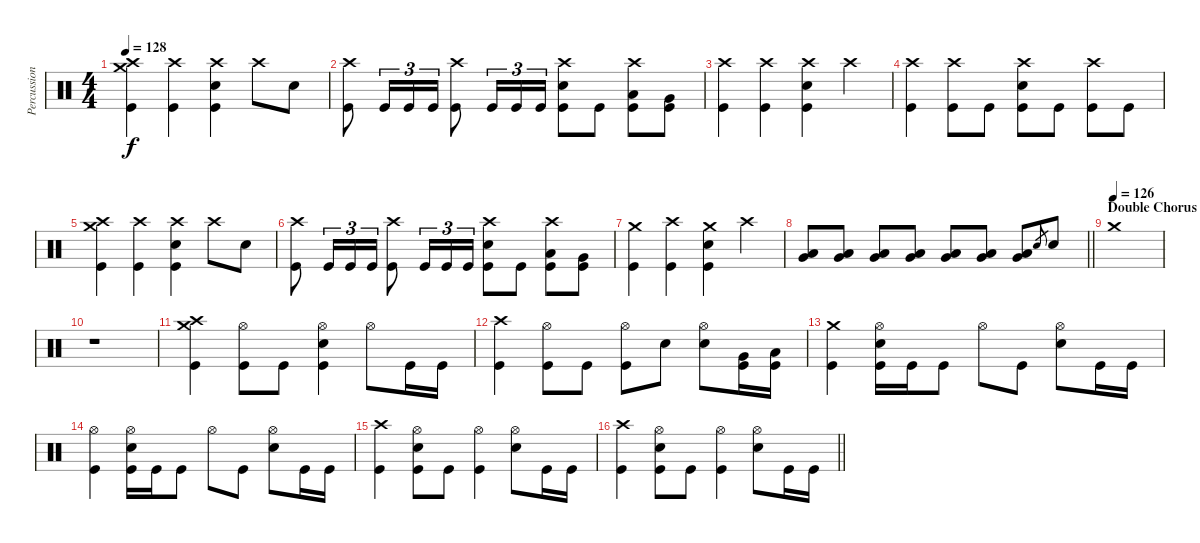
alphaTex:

\track ("Percussion" "Percussion") {instrument percussion}
\staff {score}
\articulation defaults
\ts (4 4)
\tempo 128
\clef neutral
\ks c
("Crash high (hit)" "Crash medium (hit)" "Kick (hit)").4{dy f} ("Crash high (hit)" "Kick (hit)").4 ("Crash high (hit)" "Electric Snare (hit)" "Kick (hit)").4 "Crash high (hit)".8 "Electric Snare (hit)".8 |
("Crash high (hit)" "Kick (hit)").8 "Kick (hit)".16{tu (3 2)} "Kick (hit)".16{tu (3 2)} "Kick (hit)".16{tu (3 2)} ("Crash high (hit)" "Kick (hit)").8 "Kick (hit)".16{tu (3 2)} "Kick (hit)".16{tu (3 2)} "Kick (hit)".16{tu (3 2)} ("Crash high (hit)" "Electric Snare (hit)" "Kick (hit)").8 "Kick (hit)".8 ("Crash high (hit)" "Low Floor Tom (hit)" "Kick (hit)").8 ("Very Low Tom (hit)" "Kick (hit)").8 |
("Crash high (hit)" "Kick (hit)").4 ("Crash high (hit)" "Kick (hit)").4 ("Crash high (hit)" "Electric Snare (hit)" "Kick (hit)").4 "Crash high (hit)".4 |
("Crash high (hit)" "Kick (hit)").4 ("Crash high (hit)" "Kick (hit)").8 "Kick (hit)".8 ("Crash high (hit)" "Electric Snare (hit)" "Kick (hit)").8 "Kick (hit)".8 ("Crash high (hit)" "Kick (hit)").8 "Kick (hit)".8 |
("Crash high (hit)" "Crash medium (hit)" "Kick (hit)").4 ("Crash high (hit)" "Kick (hit)").4 ("Crash high (hit)" "Electric Snare (hit)" "Kick (hit)").4 "Crash high (hit)".8 "Electric Snare (hit)".8 |
("Crash high (hit)" "Kick (hit)").8 "Kick (hit)".16{tu (3 2)} "Kick (hit)".16{tu (3 2)} "Kick (hit)".16{tu (3 2)} ("Crash high (hit)" "Kick (hit)").8 "Kick (hit)".16{tu (3 2)} "Kick (hit)".16{tu (3 2)} "Kick (hit)".16{tu (3 2)} ("Crash high (hit)" "Electric Snare (hit)" "Kick (hit)").8 "Kick (hit)".8 ("Crash high (hit)" "Low Floor Tom (hit)" "Kick (hit)").8 ("Very Low Tom (hit)" "Kick (hit)").8 |
("Crash medium (hit)" "Kick (hit)").4 ("Crash high (hit)" "Kick (hit)").4 ("Crash medium (hit)" "Electric Snare (hit)" "Kick (hit)").4 "Crash high (hit)".4 |
\barLineRight lightlight
("Very Low Tom (hit)" "Low Floor Tom (hit)").8 ("Very Low Tom (hit)" "Low Floor Tom (hit)").8 ("Very Low Tom (hit)" "Low Floor Tom (hit)").8 ("Very Low Tom (hit)" "Low Floor Tom (hit)").8 ("Very Low Tom (hit)" "Low Floor Tom (hit)").8 ("Very Low Tom (hit)" "Low Floor Tom (hit)").8 ("Very Low Tom (hit)" "Low Floor Tom (hit)").8 "Electric Snare (hit)".8{gr} "Electric Snare (hit)".8 |
\section ("" "Double Chorus")
\tempo (126)
"Crash medium (hit)".1 |
r.1 |
("Crash high (hit)" "Crash medium (hit)" "Kick (hit)").4 ("Hi-Hat (open)" "Kick (hit)").8 "Kick (hit)".8 ("Hi-Hat (open)" "Electric Snare (hit)" "Kick (hit)").4 "Hi-Hat (open)".8 "Kick (hit)".16 "Kick (hit)".16 |
("Crash high (hit)" "Kick (hit)").4 ("Hi-Hat (open)" "Kick (hit)").8 "Kick (hit)".8 ("Hi-Hat (open)" "Kick (hit)").8 "Electric Snare (hit)".8 ("Hi-Hat (open)" "Electric Snare (hit)").8 ("Very Low Tom (hit)" "Kick (hit)").16 ("Low Tom (hit)" "Kick (hit)").16 |
("Crash medium (hit)" "Kick (hit)").4 ("Hi-Hat (open)" "Electric Snare (hit)" "Kick (hit)").16 "Kick (hit)".16 "Kick (hit)".8 "Hi-Hat (open)".8 "Kick (hit)".8 ("Hi-Hat (open)" "Electric Snare (hit)").8 "Kick (hit)".16 "Kick (hit)".16 |
("Hi-Hat (open)" "Kick (hit)").4 ("Hi-Hat (open)" "Electric Snare (hit)" "Kick (hit)").16 "Kick (hit)".16 "Kick (hit)".8 "Hi-Hat (open)".8 "Kick (hit)".8 ("Hi-Hat (open)" "Electric Snare (hit)").8 "Kick (hit)".16 "Kick (hit)".16 |
("Crash high (hit)" "Kick (hit)").4 ("Hi-Hat (open)" "Electric Snare (hit)" "Kick (hit)").8 "Kick (hit)".8 ("Hi-Hat (open)" "Kick (hit)").4 ("Hi-Hat (open)" "Electric Snare (hit)").8 "Kick (hit)".16 "Kick (hit)".16 |
\barLineRight lightlight
("Crash high (hit)" "Kick (hit)").4 ("Hi-Hat (open)" "Electric Snare (hit)" "Kick (hit)").8 "Kick (hit)".8 ("Hi-Hat (open)" "Kick (hit)").4 ("Hi-Hat (open)" "Electric Snare (hit)").8 "Kick (hit)".16 "Kick (hit)".16
